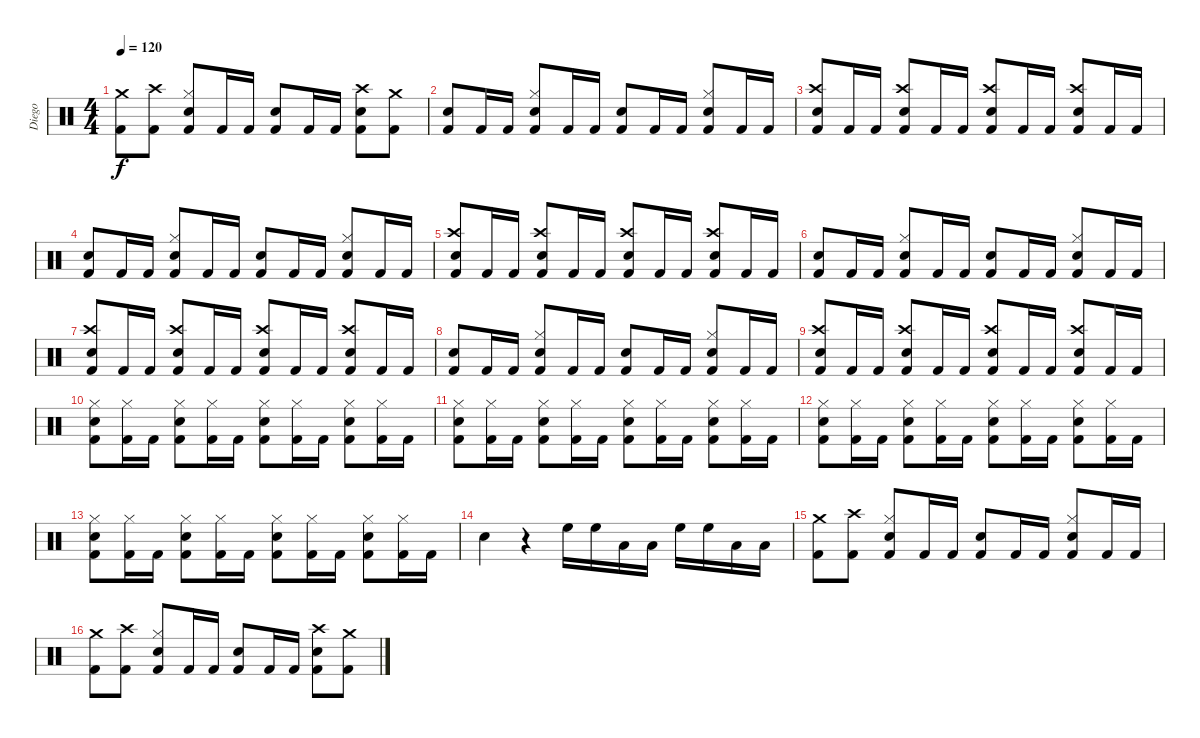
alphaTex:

\track ("Diego" "Diego") {instrument percussion}
\staff {score}
\articulation defaults
\ts (4 4)
\tempo 120
\clef neutral
\ks c
("Crash medium (hit)" "Kick (hit) 2").8{dy f} ("Crash high (hit)" "Kick (hit) 2").8 ("Hi-Hat (closed)" "Snare (hit) 2" "Kick (hit) 2").8 "Kick (hit) 2".16 "Kick (hit) 2".16 ("Snare (hit) 2" "Kick (hit) 2").8 "Kick (hit) 2".16 "Kick (hit) 2".16 ("Crash high (hit)" "Snare (hit) 2" "Kick (hit) 2").8 ("Crash medium (hit)" "Kick (hit) 2").8 |
("Snare (hit) 2" "Kick (hit) 2").8 "Kick (hit) 2".16 "Kick (hit) 2".16 ("Hi-Hat (closed)" "Snare (hit) 2" "Kick (hit) 2").8 "Kick (hit) 2".16 "Kick (hit) 2".16 ("Snare (hit) 2" "Kick (hit) 2").8 "Kick (hit) 2".16 "Kick (hit) 2".16 ("Hi-Hat (closed)" "Snare (hit) 2" "Kick (hit) 2").8 "Kick (hit) 2".16 "Kick (hit) 2".16 |
("Crash high (hit)" "Snare (hit) 2" "Kick (hit) 2").8 "Kick (hit) 2".16 "Kick (hit) 2".16 ("Crash high (hit)" "Snare (hit) 2" "Kick (hit) 2").8 "Kick (hit) 2".16 "Kick (hit) 2".16 ("Crash high (hit)" "Snare (hit) 2" "Kick (hit) 2").8 "Kick (hit) 2".16 "Kick (hit) 2".16 ("Crash high (hit)" "Snare (hit) 2" "Kick (hit) 2").8 "Kick (hit) 2".16 "Kick (hit) 2".16 |
("Snare (hit) 2" "Kick (hit) 2").8 "Kick (hit) 2".16 "Kick (hit) 2".16 ("Hi-Hat (closed)" "Snare (hit) 2" "Kick (hit) 2").8 "Kick (hit) 2".16 "Kick (hit) 2".16 ("Snare (hit) 2" "Kick (hit) 2").8 "Kick (hit) 2".16 "Kick (hit) 2".16 ("Hi-Hat (closed)" "Snare (hit) 2" "Kick (hit) 2").8 "Kick (hit) 2".16 "Kick (hit) 2".16 |
("Crash high (hit)" "Snare (hit) 2" "Kick (hit) 2").8 "Kick (hit) 2".16 "Kick (hit) 2".16 ("Crash high (hit)" "Snare (hit) 2" "Kick (hit) 2").8 "Kick (hit) 2".16 "Kick (hit) 2".16 ("Crash high (hit)" "Snare (hit) 2" "Kick (hit) 2").8 "Kick (hit) 2".16 "Kick (hit) 2".16 ("Crash high (hit)" "Snare (hit) 2" "Kick (hit) 2").8 "Kick (hit) 2".16 "Kick (hit) 2".16 |
("Snare (hit) 2" "Kick (hit) 2").8 "Kick (hit) 2".16 "Kick (hit) 2".16 ("Hi-Hat (closed)" "Snare (hit) 2" "Kick (hit) 2").8 "Kick (hit) 2".16 "Kick (hit) 2".16 ("Snare (hit) 2" "Kick (hit) 2").8 "Kick (hit) 2".16 "Kick (hit) 2".16 ("Hi-Hat (closed)" "Snare (hit) 2" "Kick (hit) 2").8 "Kick (hit) 2".16 "Kick (hit) 2".16 |
("Crash high (hit)" "Snare (hit) 2" "Kick (hit) 2").8 "Kick (hit) 2".16 "Kick (hit) 2".16 ("Crash high (hit)" "Snare (hit) 2" "Kick (hit) 2").8 "Kick (hit) 2".16 "Kick (hit) 2".16 ("Crash high (hit)" "Snare (hit) 2" "Kick (hit) 2").8 "Kick (hit) 2".16 "Kick (hit) 2".16 ("Crash high (hit)" "Snare (hit) 2" "Kick (hit) 2").8 "Kick (hit) 2".16 "Kick (hit) 2".16 |
("Snare (hit) 2" "Kick (hit) 2").8 "Kick (hit) 2".16 "Kick (hit) 2".16 ("Hi-Hat (closed)" "Snare (hit) 2" "Kick (hit) 2").8 "Kick (hit) 2".16 "Kick (hit) 2".16 ("Snare (hit) 2" "Kick (hit) 2").8 "Kick (hit) 2".16 "Kick (hit) 2".16 ("Hi-Hat (closed)" "Snare (hit) 2" "Kick (hit) 2").8 "Kick (hit) 2".16 "Kick (hit) 2".16 |
("Crash high (hit)" "Snare (hit) 2" "Kick (hit) 2").8 "Kick (hit) 2".16 "Kick (hit) 2".16 ("Crash high (hit)" "Snare (hit) 2" "Kick (hit) 2").8 "Kick (hit) 2".16 "Kick (hit) 2".16 ("Crash high (hit)" "Snare (hit) 2" "Kick (hit) 2").8 "Kick (hit) 2".16 "Kick (hit) 2".16 ("Crash high (hit)" "Snare (hit) 2" "Kick (hit) 2").8 "Kick (hit) 2".16 "Kick (hit) 2".16 |
("Hi-Hat (closed)" "Snare (hit) 2" "Kick (hit) 2").8 ("Hi-Hat (closed)" "Kick (hit) 2").16 "Kick (hit) 2".16 ("Hi-Hat (closed)" "Snare (hit) 2" "Kick (hit) 2").8 ("Hi-Hat (closed)" "Kick (hit) 2").16 "Kick (hit) 2".16 ("Hi-Hat (closed)" "Snare (hit) 2" "Kick (hit) 2").8 ("Hi-Hat (closed)" "Kick (hit) 2").16 "Kick (hit) 2".16 ("Hi-Hat (closed)" "Snare (hit) 2" "Kick (hit) 2").8 ("Hi-Hat (closed)" "Kick (hit) 2").16 "Kick (hit) 2".16 |
("Hi-Hat (closed)" "Snare (hit) 2" "Kick (hit) 2").8 ("Hi-Hat (closed)" "Kick (hit) 2").16 "Kick (hit) 2".16 ("Hi-Hat (closed)" "Snare (hit) 2" "Kick (hit) 2").8 ("Hi-Hat (closed)" "Kick (hit) 2").16 "Kick (hit) 2".16 ("Hi-Hat (closed)" "Snare (hit) 2" "Kick (hit) 2").8 ("Hi-Hat (closed)" "Kick (hit) 2").16 "Kick (hit) 2".16 ("Hi-Hat (closed)" "Snare (hit) 2" "Kick (hit) 2").8 ("Hi-Hat (closed)" "Kick (hit) 2").16 "Kick (hit) 2".16 |
("Hi-Hat (closed)" "Snare (hit) 2" "Kick (hit) 2").8 ("Hi-Hat (closed)" "Kick (hit) 2").16 "Kick (hit) 2".16 ("Hi-Hat (closed)" "Snare (hit) 2" "Kick (hit) 2").8 ("Hi-Hat (closed)" "Kick (hit) 2").16 "Kick (hit) 2".16 ("Hi-Hat (closed)" "Snare (hit) 2" "Kick (hit) 2").8 ("Hi-Hat (closed)" "Kick (hit) 2").16 "Kick (hit) 2".16 ("Hi-Hat (closed)" "Snare (hit) 2" "Kick (hit) 2").8 ("Hi-Hat (closed)" "Kick (hit) 2").16 "Kick (hit) 2".16 |
("Hi-Hat (closed)" "Snare (hit) 2" "Kick (hit) 2").8 ("Hi-Hat (closed)" "Kick (hit) 2").16 "Kick (hit) 2".16 ("Hi-Hat (closed)" "Snare (hit) 2" "Kick (hit) 2").8 ("Hi-Hat (closed)" "Kick (hit) 2").16 "Kick (hit) 2".16 ("Hi-Hat (closed)" "Snare (hit) 2" "Kick (hit) 2").8 ("Hi-Hat (closed)" "Kick (hit) 2").16 "Kick (hit) 2".16 ("Hi-Hat (closed)" "Snare (hit) 2" "Kick (hit) 2").8 ("Hi-Hat (closed)" "Kick (hit) 2").16 "Kick (hit) 2".16 |
"Snare (hit) 2".4 r.4 "High Floor Tom (hit)".16 "High Floor Tom (hit)".16 "Low Tom (hit)".16 "Low Tom (hit)".16 "High Floor Tom (hit)".16 "High Floor Tom (hit)".16 "Low Tom (hit)".16 "Low Tom (hit)".16 |
("Crash medium (hit)" "Kick (hit) 2").8 ("Crash high (hit)" "Kick (hit) 2").8 ("Hi-Hat (closed)" "Snare (hit) 2" "Kick (hit) 2").8 "Kick (hit) 2".16 "Kick (hit) 2".16 ("Snare (hit) 2" "Kick (hit) 2").8 "Kick (hit) 2".16 "Kick (hit) 2".16 ("Hi-Hat (closed)" "Snare (hit) 2" "Kick (hit) 2").8 "Kick (hit) 2".16 "Kick (hit) 2".16 |
("Crash medium (hit)" "Kick (hit) 2").8 ("Crash high (hit)" "Kick (hit) 2").8 ("Hi-Hat (closed)" "Snare (hit) 2" "Kick (hit) 2").8 "Kick (hit) 2".16 "Kick (hit) 2".16 ("Snare (hit) 2" "Kick (hit) 2").8 "Kick (hit) 2".16 "Kick (hit) 2".16 ("Crash high (hit)" "Snare (hit) 2" "Kick (hit) 2").8 ("Crash medium (hit)" "Kick (hit) 2").8
